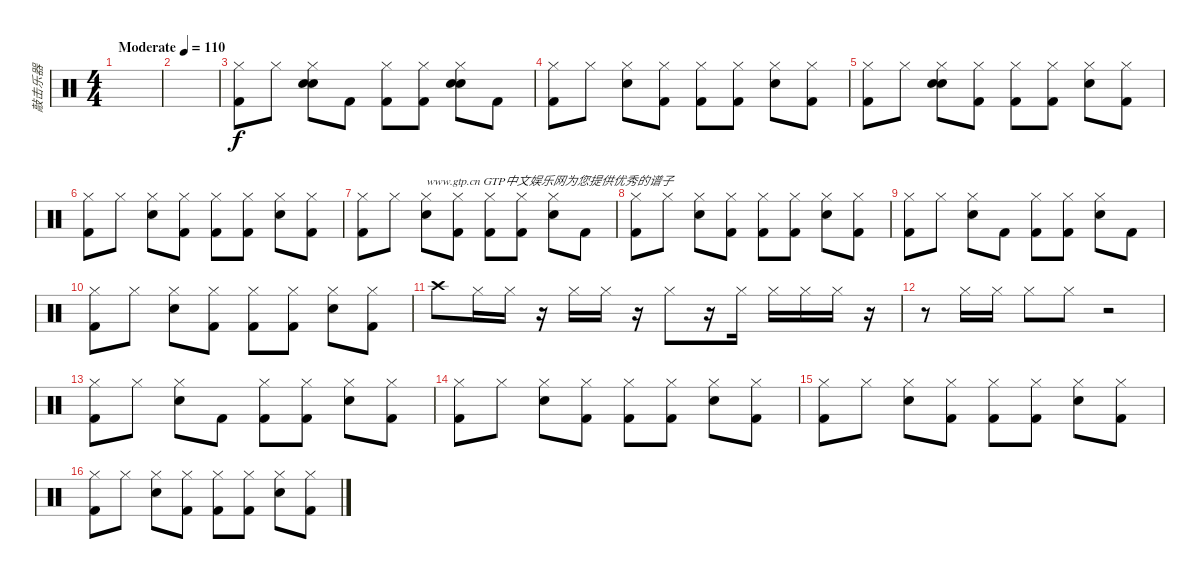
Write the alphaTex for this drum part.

\track ("敲击乐器" "敲击乐器") {instrument percussion}
\staff {score}
\articulation defaults
\ts (4 4)
\tempo (110 "Moderate")
\clef neutral
\ks c
|
|
("Kick (hit) 2" "Hi-Hat (closed)").8 "Hi-Hat (closed)".8 ("Hi-Hat (closed)" "Snare (hit)" "Electric Snare (hit)").8 "Kick (hit) 2".8 ("Hi-Hat (closed)" "Kick (hit) 2").8 ("Hi-Hat (closed)" "Kick (hit) 2").8 ("Hi-Hat (closed)" "Snare (hit)" "Electric Snare (hit)").8 "Kick (hit) 2".8 |
("Hi-Hat (closed)" "Kick (hit) 2").8 "Hi-Hat (closed)".8 ("Hi-Hat (closed)" "Electric Snare (hit)").8 ("Kick (hit) 2" "Hi-Hat (closed)").8 ("Hi-Hat (closed)" "Kick (hit) 2").8 ("Hi-Hat (closed)" "Kick (hit) 2").8 ("Hi-Hat (closed)" "Electric Snare (hit)").8 ("Hi-Hat (closed)" "Kick (hit) 2").8 |
("Hi-Hat (closed)" "Kick (hit) 2").8 "Hi-Hat (closed)".8 ("Snare (hit)" "Hi-Hat (closed)" "Electric Snare (hit)").8 ("Hi-Hat (closed)" "Kick (hit) 2").8 ("Hi-Hat (closed)" "Kick (hit) 2").8 ("Hi-Hat (closed)" "Kick (hit) 2").8 ("Electric Snare (hit)" "Hi-Hat (closed)").8 ("Hi-Hat (closed)" "Kick (hit) 2").8 |
("Hi-Hat (closed)" "Kick (hit) 2").8 "Hi-Hat (closed)".8 ("Electric Snare (hit)" "Hi-Hat (closed)").8 ("Hi-Hat (closed)" "Kick (hit) 2").8 ("Kick (hit) 2" "Hi-Hat (closed)").8 ("Kick (hit) 2" "Hi-Hat (closed)").8 ("Electric Snare (hit)" "Hi-Hat (closed)").8 ("Hi-Hat (closed)" "Kick (hit) 2").8 |
("Kick (hit) 2" "Hi-Hat (closed)").8 "Hi-Hat (closed)".8 ("Electric Snare (hit)" "Hi-Hat (closed)").8{txt "www.gtp.cn GTP中文娱乐网为您提供优秀的谱子"} ("Hi-Hat (closed)" "Kick (hit) 2").8 ("Hi-Hat (closed)" "Kick (hit) 2").8 ("Hi-Hat (closed)" "Kick (hit) 2").8 ("Electric Snare (hit)" "Hi-Hat (closed)").8 "Kick (hit) 2".8 |
("Hi-Hat (closed)" "Kick (hit) 2").8 "Hi-Hat (closed)".8 ("Hi-Hat (closed)" "Electric Snare (hit)").8 ("Kick (hit) 2" "Hi-Hat (closed)").8 ("Hi-Hat (closed)" "Kick (hit) 2").8 ("Kick (hit) 2" "Hi-Hat (closed)").8 ("Hi-Hat (closed)" "Electric Snare (hit)").8 ("Hi-Hat (closed)" "Kick (hit) 2").8 |
("Hi-Hat (closed)" "Kick (hit) 2").8 "Hi-Hat (closed)".8 ("Electric Snare (hit)" "Hi-Hat (closed)").8 "Kick (hit) 2".8 ("Hi-Hat (closed)" "Kick (hit) 2").8 ("Hi-Hat (closed)" "Kick (hit) 2").8 ("Hi-Hat (closed)" "Electric Snare (hit)").8 "Kick (hit) 2".8 |
("Hi-Hat (closed)" "Kick (hit) 2").8 "Hi-Hat (closed)".8 ("Electric Snare (hit)" "Hi-Hat (closed)").8 ("Hi-Hat (closed)" "Kick (hit) 2").8 ("Kick (hit) 2" "Hi-Hat (closed)").8 ("Kick (hit) 2" "Hi-Hat (closed)").8 ("Hi-Hat (closed)" "Electric Snare (hit)").8 ("Kick (hit) 2" "Hi-Hat (closed)").8 |
"Crash high (hit)".8 "Hi-Hat (closed)".16 "Hi-Hat (closed)".16 r.16 "Hi-Hat (closed)".16 "Hi-Hat (closed)".16 r.16 "Hi-Hat (closed)".8 r.16 "Hi-Hat (closed)".16 "Hi-Hat (closed)".16 "Hi-Hat (closed)".16 "Hi-Hat (closed)".16 r.16 |
r.8 "Hi-Hat (closed)".16 "Hi-Hat (closed)".16 "Hi-Hat (closed)".8 "Hi-Hat (closed)".8 r.2 |
("Hi-Hat (closed)" "Kick (hit) 2").8 "Hi-Hat (closed)".8 ("Electric Snare (hit)" "Hi-Hat (closed)").8 "Kick (hit) 2".8 ("Hi-Hat (closed)" "Kick (hit) 2").8 ("Hi-Hat (closed)" "Kick (hit) 2").8 ("Electric Snare (hit)" "Hi-Hat (closed)").8 ("Kick (hit) 2" "Hi-Hat (closed)").8 |
("Hi-Hat (closed)" "Kick (hit) 2").8 "Hi-Hat (closed)".8 ("Electric Snare (hit)" "Hi-Hat (closed)").8 ("Hi-Hat (closed)" "Kick (hit) 2").8 ("Kick (hit) 2" "Hi-Hat (closed)").8 ("Hi-Hat (closed)" "Kick (hit) 2").8 ("Hi-Hat (closed)" "Electric Snare (hit)").8 ("Kick (hit) 2" "Hi-Hat (closed)").8 |
("Hi-Hat (closed)" "Kick (hit) 2").8 "Hi-Hat (closed)".8 ("Electric Snare (hit)" "Hi-Hat (closed)").8 ("Hi-Hat (closed)" "Kick (hit) 2").8 ("Kick (hit) 2" "Hi-Hat (closed)").8 ("Kick (hit) 2" "Hi-Hat (closed)").8 ("Electric Snare (hit)" "Hi-Hat (closed)").8 ("Hi-Hat (closed)" "Kick (hit) 2").8 |
("Kick (hit) 2" "Hi-Hat (closed)").8 "Hi-Hat (closed)".8 ("Hi-Hat (closed)" "Electric Snare (hit)").8 ("Kick (hit) 2" "Hi-Hat (closed)").8 ("Hi-Hat (closed)" "Kick (hit) 2").8 ("Kick (hit) 2" "Hi-Hat (closed)").8 ("Hi-Hat (closed)" "Electric Snare (hit)").8 ("Kick (hit) 2" "Hi-Hat (closed)").8
